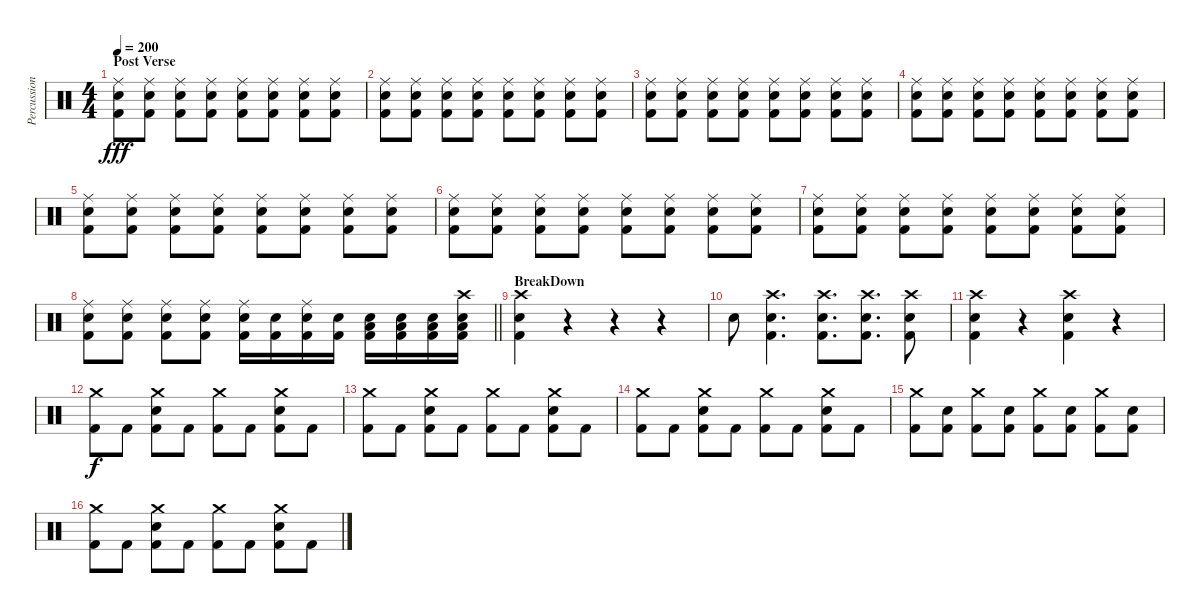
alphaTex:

\track ("Percussion" "Percussion") {instrument percussion}
\staff {score}
\articulation defaults
\ts (4 4)
\section ("" "Post Verse")
\tempo 200
\clef neutral
\ks c
("Ride (middle)" "Electric Snare (hit)" "Kick (hit) 2").8{dy fff} ("Ride (middle)" "Electric Snare (hit)" "Kick (hit) 2").8 ("Ride (middle)" "Electric Snare (hit)" "Kick (hit) 2").8 ("Ride (middle)" "Electric Snare (hit)" "Kick (hit) 2").8 ("Ride (middle)" "Electric Snare (hit)" "Kick (hit) 2").8 ("Ride (middle)" "Electric Snare (hit)" "Kick (hit) 2").8 ("Ride (middle)" "Electric Snare (hit)" "Kick (hit) 2").8 ("Ride (middle)" "Electric Snare (hit)" "Kick (hit) 2").8 |
("Ride (middle)" "Electric Snare (hit)" "Kick (hit) 2").8 ("Ride (middle)" "Electric Snare (hit)" "Kick (hit) 2").8 ("Ride (middle)" "Electric Snare (hit)" "Kick (hit) 2").8 ("Ride (middle)" "Electric Snare (hit)" "Kick (hit) 2").8 ("Ride (middle)" "Electric Snare (hit)" "Kick (hit) 2").8 ("Ride (middle)" "Electric Snare (hit)" "Kick (hit) 2").8 ("Ride (middle)" "Electric Snare (hit)" "Kick (hit) 2").8 ("Ride (middle)" "Electric Snare (hit)" "Kick (hit) 2").8 |
("Ride (middle)" "Electric Snare (hit)" "Kick (hit) 2").8 ("Ride (middle)" "Electric Snare (hit)" "Kick (hit) 2").8 ("Ride (middle)" "Electric Snare (hit)" "Kick (hit) 2").8 ("Ride (middle)" "Electric Snare (hit)" "Kick (hit) 2").8 ("Ride (middle)" "Electric Snare (hit)" "Kick (hit) 2").8 ("Ride (middle)" "Electric Snare (hit)" "Kick (hit) 2").8 ("Ride (middle)" "Electric Snare (hit)" "Kick (hit) 2").8 ("Ride (middle)" "Electric Snare (hit)" "Kick (hit) 2").8 |
("Ride (middle)" "Electric Snare (hit)" "Kick (hit) 2").8 ("Ride (middle)" "Electric Snare (hit)" "Kick (hit) 2").8 ("Ride (middle)" "Electric Snare (hit)" "Kick (hit) 2").8 ("Ride (middle)" "Electric Snare (hit)" "Kick (hit) 2").8 ("Ride (middle)" "Electric Snare (hit)" "Kick (hit) 2").8 ("Ride (middle)" "Electric Snare (hit)" "Kick (hit) 2").8 ("Ride (middle)" "Electric Snare (hit)" "Kick (hit) 2").8 ("Ride (middle)" "Electric Snare (hit)" "Kick (hit) 2").8 |
("Ride (middle)" "Electric Snare (hit)" "Kick (hit) 2").8 ("Ride (middle)" "Electric Snare (hit)" "Kick (hit) 2").8 ("Ride (middle)" "Electric Snare (hit)" "Kick (hit) 2").8 ("Ride (middle)" "Electric Snare (hit)" "Kick (hit) 2").8 ("Ride (middle)" "Electric Snare (hit)" "Kick (hit) 2").8 ("Ride (middle)" "Electric Snare (hit)" "Kick (hit) 2").8 ("Ride (middle)" "Electric Snare (hit)" "Kick (hit) 2").8 ("Ride (middle)" "Electric Snare (hit)" "Kick (hit) 2").8 |
("Ride (middle)" "Electric Snare (hit)" "Kick (hit) 2").8 ("Ride (middle)" "Electric Snare (hit)" "Kick (hit) 2").8 ("Ride (middle)" "Electric Snare (hit)" "Kick (hit) 2").8 ("Ride (middle)" "Electric Snare (hit)" "Kick (hit) 2").8 ("Ride (middle)" "Electric Snare (hit)" "Kick (hit) 2").8 ("Ride (middle)" "Electric Snare (hit)" "Kick (hit) 2").8 ("Ride (middle)" "Electric Snare (hit)" "Kick (hit) 2").8 ("Ride (middle)" "Electric Snare (hit)" "Kick (hit) 2").8 |
("Ride (middle)" "Electric Snare (hit)" "Kick (hit) 2").8 ("Ride (middle)" "Electric Snare (hit)" "Kick (hit) 2").8 ("Ride (middle)" "Electric Snare (hit)" "Kick (hit) 2").8 ("Ride (middle)" "Electric Snare (hit)" "Kick (hit) 2").8 ("Ride (middle)" "Electric Snare (hit)" "Kick (hit) 2").8 ("Ride (middle)" "Electric Snare (hit)" "Kick (hit) 2").8 ("Ride (middle)" "Electric Snare (hit)" "Kick (hit) 2").8 ("Ride (middle)" "Electric Snare (hit)" "Kick (hit) 2").8 |
\barLineRight lightlight
("Ride (middle)" "Electric Snare (hit)" "Kick (hit) 2").8 ("Ride (middle)" "Electric Snare (hit)" "Kick (hit) 2").8 ("Ride (middle)" "Electric Snare (hit)" "Kick (hit) 2").8 ("Ride (middle)" "Electric Snare (hit)" "Kick (hit) 2").8 ("Ride (middle)" "Electric Snare (hit)" "Kick (hit) 2").16 ("Electric Snare (hit)" "Kick (hit) 2").16 ("Ride (middle)" "Electric Snare (hit)" "Kick (hit) 2").16 ("Electric Snare (hit)" "Kick (hit) 2").16 ("Low Tom (hit)" "Electric Snare (hit)" "Kick (hit) 2").16 ("Low Tom (hit)" "Electric Snare (hit)" "Kick (hit) 2").16 ("Low Tom (hit)" "Electric Snare (hit)" "Kick (hit) 2").16 ("Crash high (hit)" "Low Tom (hit)" "Electric Snare (hit)" "Kick (hit) 2").16 |
\section ("" "BreakDown")
("Crash high (hit)" "Electric Snare (hit)" "Kick (hit) 2").4 r.4 r.4 r.4 |
"Electric Snare (hit)".8 ("Crash high (hit)" "Electric Snare (hit)" "Kick (hit) 2").4{d} ("Crash high (hit)" "Electric Snare (hit)" "Kick (hit) 2").8{d} ("Crash high (hit)" "Electric Snare (hit)" "Kick (hit) 2").8{d} ("Crash high (hit)" "Electric Snare (hit)" "Kick (hit) 2").8 |
("Crash high (hit)" "Electric Snare (hit)" "Kick (hit) 2").4 r.4 ("Crash high (hit)" "Electric Snare (hit)" "Kick (hit) 2").4 r.4 |
("Crash medium (hit)" "Kick (hit) 2").8{dy f} "Kick (hit) 2".8 ("Crash medium (hit)" "Electric Snare (hit)" "Kick (hit) 2").8 "Kick (hit) 2".8 ("Crash medium (hit)" "Kick (hit) 2").8 "Kick (hit) 2".8 ("Crash medium (hit)" "Electric Snare (hit)" "Kick (hit) 2").8 "Kick (hit) 2".8 |
("Crash medium (hit)" "Kick (hit) 2").8 "Kick (hit) 2".8 ("Crash medium (hit)" "Electric Snare (hit)" "Kick (hit) 2").8 "Kick (hit) 2".8 ("Crash medium (hit)" "Kick (hit) 2").8 "Kick (hit) 2".8 ("Crash medium (hit)" "Electric Snare (hit)" "Kick (hit) 2").8 "Kick (hit) 2".8 |
("Crash medium (hit)" "Kick (hit) 2").8 "Kick (hit) 2".8 ("Crash medium (hit)" "Electric Snare (hit)" "Kick (hit) 2").8 "Kick (hit) 2".8 ("Crash medium (hit)" "Kick (hit) 2").8 "Kick (hit) 2".8 ("Crash medium (hit)" "Electric Snare (hit)" "Kick (hit) 2").8 "Kick (hit) 2".8 |
("Crash medium (hit)" "Kick (hit) 2").8 ("Electric Snare (hit)" "Kick (hit) 2").8 ("Crash medium (hit)" "Kick (hit) 2").8 ("Electric Snare (hit)" "Kick (hit) 2").8 ("Crash medium (hit)" "Kick (hit) 2").8 ("Electric Snare (hit)" "Kick (hit) 2").8 ("Crash medium (hit)" "Kick (hit) 2").8 ("Electric Snare (hit)" "Kick (hit) 2").8 |
("Crash medium (hit)" "Kick (hit) 2").8 "Kick (hit) 2".8 ("Crash medium (hit)" "Electric Snare (hit)" "Kick (hit) 2").8 "Kick (hit) 2".8 ("Crash medium (hit)" "Kick (hit) 2").8 "Kick (hit) 2".8 ("Crash medium (hit)" "Electric Snare (hit)" "Kick (hit) 2").8 "Kick (hit) 2".8
